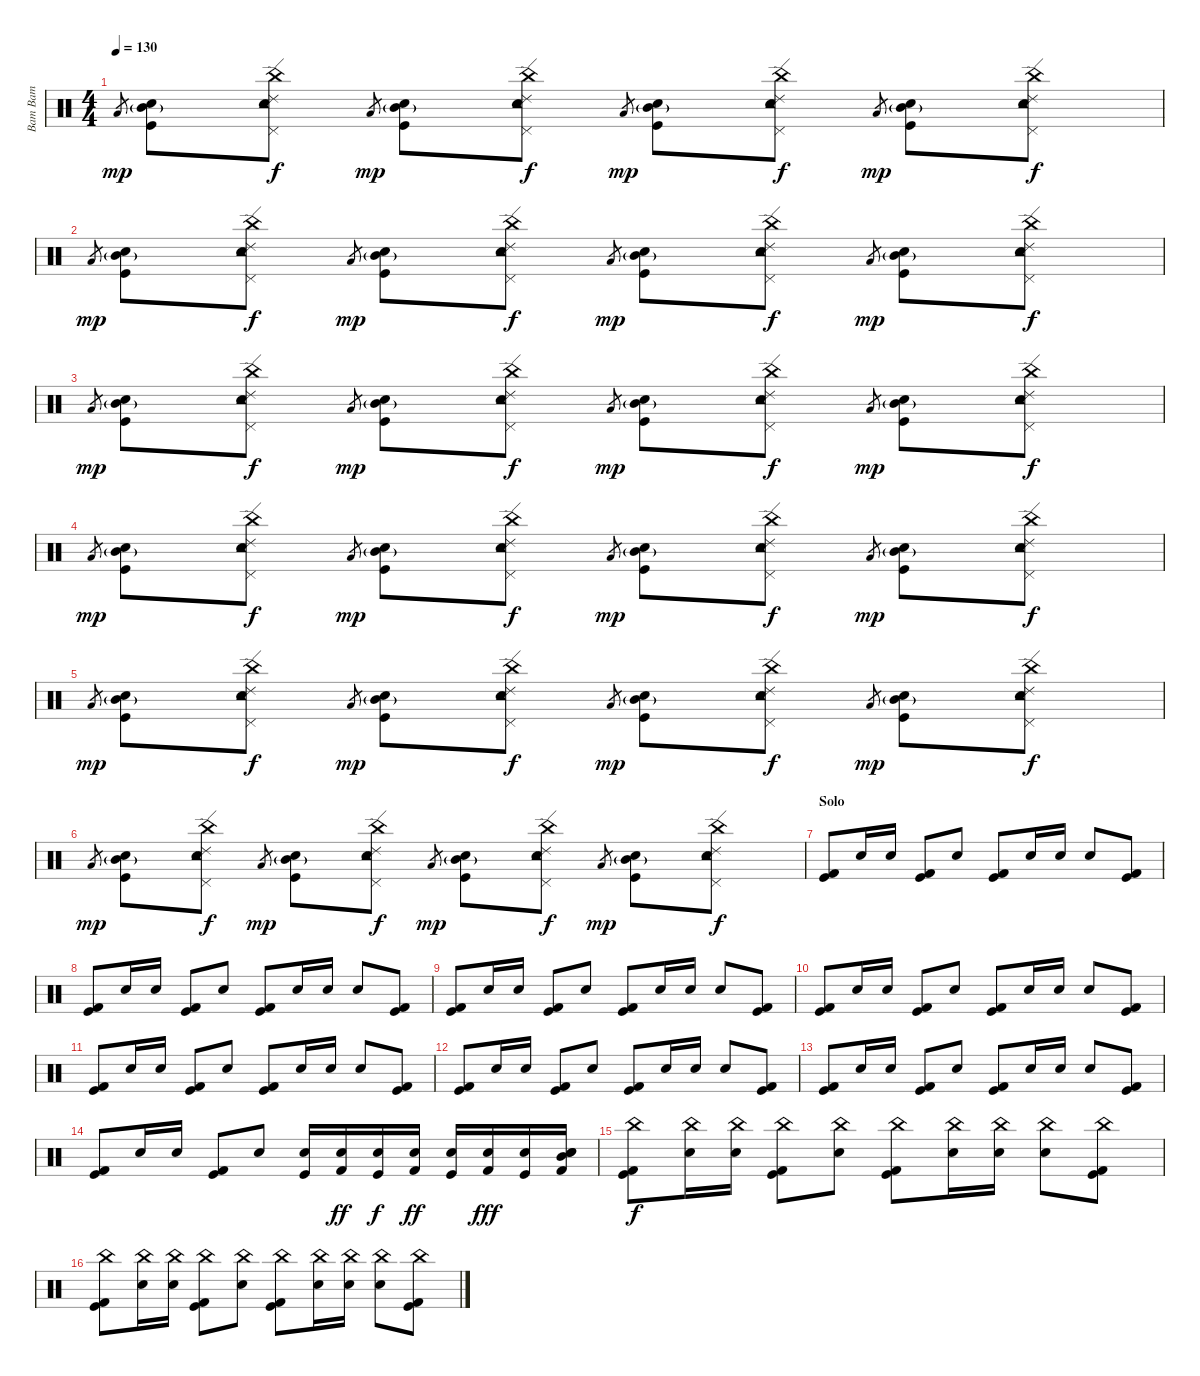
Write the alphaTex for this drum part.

\track ("Bam Bam" "Bam Bam") {instrument percussion}
\staff {score}
\articulation defaults
\ts (4 4)
\tempo 130
\clef neutral
\ks c "Low Tom (hit)".8{gr dy mp}
("Mid Tom (hit)"{g} "Kick (hit)" "Snare (hit) 2").8 ("Tambourine (hit)" "Pedal Hi-Hat (hit)" "China (hit)" "Ride (edge) 2" "Electric Snare (hit)").8{dy f} "Low Tom (hit)".8{gr dy mp} ("Mid Tom (hit)"{g} "Kick (hit)" "Snare (hit) 2").8 ("Tambourine (hit)" "Pedal Hi-Hat (hit)" "China (hit)" "Ride (edge) 2" "Electric Snare (hit)").8{dy f} "Low Tom (hit)".8{gr dy mp} ("Mid Tom (hit)"{g} "Kick (hit)" "Snare (hit) 2").8 ("Tambourine (hit)" "Pedal Hi-Hat (hit)" "China (hit)" "Ride (edge) 2" "Electric Snare (hit)").8{dy f} "Low Tom (hit)".8{gr dy mp} ("Mid Tom (hit)"{g} "Kick (hit)" "Snare (hit) 2").8 ("Tambourine (hit)" "Pedal Hi-Hat (hit)" "China (hit)" "Ride (edge) 2" "Electric Snare (hit)").8{dy f} |
"Low Tom (hit)".8{gr dy mp} ("Mid Tom (hit)"{g} "Kick (hit)" "Snare (hit) 2").8 ("Tambourine (hit)" "Pedal Hi-Hat (hit)" "China (hit)" "Ride (edge) 2" "Electric Snare (hit)").8{dy f} "Low Tom (hit)".8{gr dy mp} ("Mid Tom (hit)"{g} "Kick (hit)" "Snare (hit) 2").8 ("Tambourine (hit)" "Pedal Hi-Hat (hit)" "China (hit)" "Ride (edge) 2" "Electric Snare (hit)").8{dy f} "Low Tom (hit)".8{gr dy mp} ("Mid Tom (hit)"{g} "Kick (hit)" "Snare (hit) 2").8 ("Tambourine (hit)" "Pedal Hi-Hat (hit)" "China (hit)" "Ride (edge) 2" "Electric Snare (hit)").8{dy f} "Low Tom (hit)".8{gr dy mp} ("Mid Tom (hit)"{g} "Kick (hit)" "Snare (hit) 2").8 ("Tambourine (hit)" "Pedal Hi-Hat (hit)" "China (hit)" "Ride (edge) 2" "Electric Snare (hit)").8{dy f} |
"Low Tom (hit)".8{gr dy mp} ("Mid Tom (hit)"{g} "Kick (hit)" "Snare (hit) 2").8 ("Tambourine (hit)" "Pedal Hi-Hat (hit)" "China (hit)" "Ride (edge) 2" "Electric Snare (hit)").8{dy f} "Low Tom (hit)".8{gr dy mp} ("Mid Tom (hit)"{g} "Kick (hit)" "Snare (hit) 2").8 ("Tambourine (hit)" "Pedal Hi-Hat (hit)" "China (hit)" "Ride (edge) 2" "Electric Snare (hit)").8{dy f} "Low Tom (hit)".8{gr dy mp} ("Mid Tom (hit)"{g} "Kick (hit)" "Snare (hit) 2").8 ("Tambourine (hit)" "Pedal Hi-Hat (hit)" "China (hit)" "Ride (edge) 2" "Electric Snare (hit)").8{dy f} "Low Tom (hit)".8{gr dy mp} ("Mid Tom (hit)"{g} "Kick (hit)" "Snare (hit) 2").8 ("Tambourine (hit)" "Pedal Hi-Hat (hit)" "China (hit)" "Ride (edge) 2" "Electric Snare (hit)").8{dy f} |
"Low Tom (hit)".8{gr dy mp} ("Mid Tom (hit)"{g} "Kick (hit)" "Snare (hit) 2").8 ("Tambourine (hit)" "Pedal Hi-Hat (hit)" "China (hit)" "Ride (edge) 2" "Electric Snare (hit)").8{dy f} "Low Tom (hit)".8{gr dy mp} ("Mid Tom (hit)"{g} "Kick (hit)" "Snare (hit) 2").8 ("Tambourine (hit)" "Pedal Hi-Hat (hit)" "China (hit)" "Ride (edge) 2" "Electric Snare (hit)").8{dy f} "Low Tom (hit)".8{gr dy mp} ("Mid Tom (hit)"{g} "Kick (hit)" "Snare (hit) 2").8 ("Tambourine (hit)" "Pedal Hi-Hat (hit)" "China (hit)" "Ride (edge) 2" "Electric Snare (hit)").8{dy f} "Low Tom (hit)".8{gr dy mp} ("Mid Tom (hit)"{g} "Kick (hit)" "Snare (hit) 2").8 ("Tambourine (hit)" "Pedal Hi-Hat (hit)" "China (hit)" "Ride (edge) 2" "Electric Snare (hit)").8{dy f} |
"Low Tom (hit)".8{gr dy mp} ("Mid Tom (hit)"{g} "Kick (hit)" "Snare (hit) 2").8 ("Tambourine (hit)" "Pedal Hi-Hat (hit)" "China (hit)" "Ride (edge) 2" "Electric Snare (hit)").8{dy f} "Low Tom (hit)".8{gr dy mp} ("Mid Tom (hit)"{g} "Kick (hit)" "Snare (hit) 2").8 ("Tambourine (hit)" "Pedal Hi-Hat (hit)" "China (hit)" "Ride (edge) 2" "Electric Snare (hit)").8{dy f} "Low Tom (hit)".8{gr dy mp} ("Mid Tom (hit)"{g} "Kick (hit)" "Snare (hit) 2").8 ("Tambourine (hit)" "Pedal Hi-Hat (hit)" "China (hit)" "Ride (edge) 2" "Electric Snare (hit)").8{dy f} "Low Tom (hit)".8{gr dy mp} ("Mid Tom (hit)"{g} "Kick (hit)" "Snare (hit) 2").8 ("Tambourine (hit)" "Pedal Hi-Hat (hit)" "China (hit)" "Ride (edge) 2" "Electric Snare (hit)").8{dy f} |
"Low Tom (hit)".8{gr dy mp} ("Mid Tom (hit)"{g} "Kick (hit)" "Snare (hit) 2").8 ("Tambourine (hit)" "Pedal Hi-Hat (hit)" "China (hit)" "Ride (edge) 2" "Electric Snare (hit)").8{dy f} "Low Tom (hit)".8{gr dy mp} ("Mid Tom (hit)"{g} "Kick (hit)" "Snare (hit) 2").8 ("Tambourine (hit)" "Pedal Hi-Hat (hit)" "China (hit)" "Ride (edge) 2" "Electric Snare (hit)").8{dy f} "Low Tom (hit)".8{gr dy mp} ("Mid Tom (hit)"{g} "Kick (hit)" "Snare (hit) 2").8 ("Tambourine (hit)" "Pedal Hi-Hat (hit)" "China (hit)" "Ride (edge) 2" "Electric Snare (hit)").8{dy f} "Low Tom (hit)".8{gr dy mp} ("Mid Tom (hit)"{g} "Kick (hit)" "Snare (hit) 2").8 ("Tambourine (hit)" "Pedal Hi-Hat (hit)" "China (hit)" "Ride (edge) 2" "Electric Snare (hit)").8{dy f} |
\section ("" "Solo")
("Kick (hit) 2" "Kick (hit)").8 "Electric Snare (hit)".16 "Electric Snare (hit)".16 ("Kick (hit) 2" "Kick (hit)").8 "Snare (hit) 2".8 ("Kick (hit) 2" "Kick (hit)").8 "Electric Snare (hit)".16 "Electric Snare (hit)".16 "Snare (hit) 2".8 ("Kick (hit) 2" "Kick (hit)").8 |
("Kick (hit) 2" "Kick (hit)").8 "Electric Snare (hit)".16 "Electric Snare (hit)".16 ("Kick (hit) 2" "Kick (hit)").8 "Snare (hit) 2".8 ("Kick (hit) 2" "Kick (hit)").8 "Electric Snare (hit)".16 "Electric Snare (hit)".16 "Snare (hit) 2".8 ("Kick (hit) 2" "Kick (hit)").8 |
("Kick (hit) 2" "Kick (hit)").8 "Electric Snare (hit)".16 "Electric Snare (hit)".16 ("Kick (hit) 2" "Kick (hit)").8 "Snare (hit) 2".8 ("Kick (hit) 2" "Kick (hit)").8 "Electric Snare (hit)".16 "Electric Snare (hit)".16 "Snare (hit) 2".8 ("Kick (hit) 2" "Kick (hit)").8 |
("Kick (hit) 2" "Kick (hit)").8 "Electric Snare (hit)".16 "Electric Snare (hit)".16 ("Kick (hit) 2" "Kick (hit)").8 "Snare (hit) 2".8 ("Kick (hit) 2" "Kick (hit)").8 "Electric Snare (hit)".16 "Electric Snare (hit)".16 "Snare (hit) 2".8 ("Kick (hit) 2" "Kick (hit)").8 |
("Kick (hit) 2" "Kick (hit)").8 "Electric Snare (hit)".16 "Electric Snare (hit)".16 ("Kick (hit) 2" "Kick (hit)").8 "Snare (hit) 2".8 ("Kick (hit) 2" "Kick (hit)").8 "Electric Snare (hit)".16 "Electric Snare (hit)".16 "Snare (hit) 2".8 ("Kick (hit) 2" "Kick (hit)").8 |
("Kick (hit) 2" "Kick (hit)").8 "Electric Snare (hit)".16 "Electric Snare (hit)".16 ("Kick (hit) 2" "Kick (hit)").8 "Snare (hit) 2".8 ("Kick (hit) 2" "Kick (hit)").8 "Electric Snare (hit)".16 "Electric Snare (hit)".16 "Snare (hit) 2".8 ("Kick (hit) 2" "Kick (hit)").8 |
("Kick (hit) 2" "Kick (hit)").8 "Electric Snare (hit)".16 "Electric Snare (hit)".16 ("Kick (hit) 2" "Kick (hit)").8 "Snare (hit) 2".8 ("Kick (hit) 2" "Kick (hit)").8 "Electric Snare (hit)".16 "Electric Snare (hit)".16 "Snare (hit) 2".8 ("Kick (hit) 2" "Kick (hit)").8 |
("Kick (hit) 2" "Kick (hit)").8 "Electric Snare (hit)".16 "Electric Snare (hit)".16 ("Kick (hit) 2" "Kick (hit)").8 "Snare (hit) 2".8 ("Kick (hit)" "Snare (hit) 2").16 ("Kick (hit) 2" "Electric Snare (hit)").16{dy ff} ("Kick (hit)" "Snare (hit) 2").16{dy f} ("Kick (hit) 2" "Electric Snare (hit)").16{dy ff} ("Kick (hit)" "Snare (hit) 2").16 ("Kick (hit) 2" "Electric Snare (hit)").16{dy fff} ("Kick (hit)" "Snare (hit) 2").16 ("Mid Tom (hit)" "Kick (hit) 2" "Electric Snare (hit)" "Snare (hit) 2").16 |
("China (hit)" "Kick (hit) 2" "Kick (hit)").8{dy f} ("China (hit)" "Electric Snare (hit)").16 ("China (hit)" "Electric Snare (hit)").16 ("China (hit)" "Kick (hit) 2" "Kick (hit)").8 ("China (hit)" "Snare (hit) 2").8 ("China (hit)" "Kick (hit) 2" "Kick (hit)").8 ("China (hit)" "Electric Snare (hit)").16 ("China (hit)" "Electric Snare (hit)").16 ("China (hit)" "Snare (hit) 2").8 ("China (hit)" "Kick (hit) 2" "Kick (hit)").8 |
("China (hit)" "Kick (hit) 2" "Kick (hit)").8 ("China (hit)" "Electric Snare (hit)").16 ("China (hit)" "Electric Snare (hit)").16 ("China (hit)" "Kick (hit) 2" "Kick (hit)").8 ("China (hit)" "Snare (hit) 2").8 ("China (hit)" "Kick (hit) 2" "Kick (hit)").8 ("China (hit)" "Electric Snare (hit)").16 ("China (hit)" "Electric Snare (hit)").16 ("China (hit)" "Snare (hit) 2").8 ("China (hit)" "Kick (hit) 2" "Kick (hit)").8
